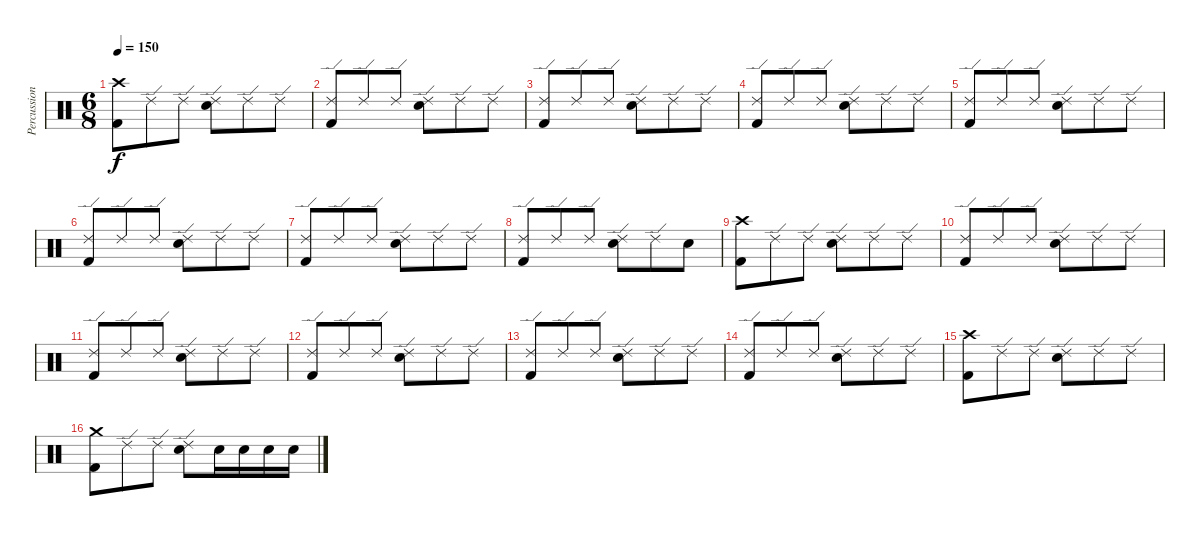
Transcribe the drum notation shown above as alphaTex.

\track ("Percussion" "Percussion") {instrument percussion}
\staff {score}
\articulation defaults
\ts (6 8)
\tempo 150
\clef neutral
\ks c
("Crash high (hit)" "Kick (hit) 2").8{dy f} "Ride (edge) 2".8 "Ride (edge) 2".8 ("Ride (edge) 2" "Electric Snare (hit)").8 "Ride (edge) 2".8 "Ride (edge) 2".8 |
("Ride (edge) 2" "Kick (hit) 2").8 "Ride (edge) 2".8 "Ride (edge) 2".8 ("Ride (edge) 2" "Electric Snare (hit)").8 "Ride (edge) 2".8 "Ride (edge) 2".8 |
("Ride (edge) 2" "Kick (hit) 2").8 "Ride (edge) 2".8 "Ride (edge) 2".8 ("Ride (edge) 2" "Electric Snare (hit)").8 "Ride (edge) 2".8 "Ride (edge) 2".8 |
("Ride (edge) 2" "Kick (hit) 2").8 "Ride (edge) 2".8 "Ride (edge) 2".8 ("Ride (edge) 2" "Electric Snare (hit)").8 "Ride (edge) 2".8 "Ride (edge) 2".8 |
("Ride (edge) 2" "Kick (hit) 2").8 "Ride (edge) 2".8 "Ride (edge) 2".8 ("Ride (edge) 2" "Electric Snare (hit)").8 "Ride (edge) 2".8 "Ride (edge) 2".8 |
("Ride (edge) 2" "Kick (hit) 2").8 "Ride (edge) 2".8 "Ride (edge) 2".8 ("Ride (edge) 2" "Electric Snare (hit)").8 "Ride (edge) 2".8 "Ride (edge) 2".8 |
("Ride (edge) 2" "Kick (hit) 2").8 "Ride (edge) 2".8 "Ride (edge) 2".8 ("Ride (edge) 2" "Electric Snare (hit)").8 "Ride (edge) 2".8 "Ride (edge) 2".8 |
("Ride (edge) 2" "Kick (hit) 2").8 "Ride (edge) 2".8 "Ride (edge) 2".8 ("Ride (edge) 2" "Electric Snare (hit)").8 "Ride (edge) 2".8 "Electric Snare (hit)".8 |
("Crash high (hit)" "Kick (hit) 2").8 "Ride (edge) 2".8 "Ride (edge) 2".8 ("Ride (edge) 2" "Electric Snare (hit)").8 "Ride (edge) 2".8 "Ride (edge) 2".8 |
("Ride (edge) 2" "Kick (hit) 2").8 "Ride (edge) 2".8 "Ride (edge) 2".8 ("Ride (edge) 2" "Electric Snare (hit)").8 "Ride (edge) 2".8 "Ride (edge) 2".8 |
("Ride (edge) 2" "Kick (hit) 2").8 "Ride (edge) 2".8 "Ride (edge) 2".8 ("Ride (edge) 2" "Electric Snare (hit)").8 "Ride (edge) 2".8 "Ride (edge) 2".8 |
("Ride (edge) 2" "Kick (hit) 2").8 "Ride (edge) 2".8 "Ride (edge) 2".8 ("Ride (edge) 2" "Electric Snare (hit)").8 "Ride (edge) 2".8 "Ride (edge) 2".8 |
("Ride (edge) 2" "Kick (hit) 2").8 "Ride (edge) 2".8 "Ride (edge) 2".8 ("Ride (edge) 2" "Electric Snare (hit)").8 "Ride (edge) 2".8 "Ride (edge) 2".8 |
("Ride (edge) 2" "Kick (hit) 2").8 "Ride (edge) 2".8 "Ride (edge) 2".8 ("Ride (edge) 2" "Electric Snare (hit)").8 "Ride (edge) 2".8 "Ride (edge) 2".8 |
("Crash high (hit)" "Kick (hit) 2").8 "Ride (edge) 2".8 "Ride (edge) 2".8 ("Ride (edge) 2" "Electric Snare (hit)").8 "Ride (edge) 2".8 "Ride (edge) 2".8 |
("Crash medium (hit)" "Kick (hit) 2").8 "Ride (edge) 2".8 "Ride (edge) 2".8 ("Ride (edge) 2" "Electric Snare (hit)").8 "Electric Snare (hit)".16 "Electric Snare (hit)".16 "Electric Snare (hit)".16 "Electric Snare (hit)".16
